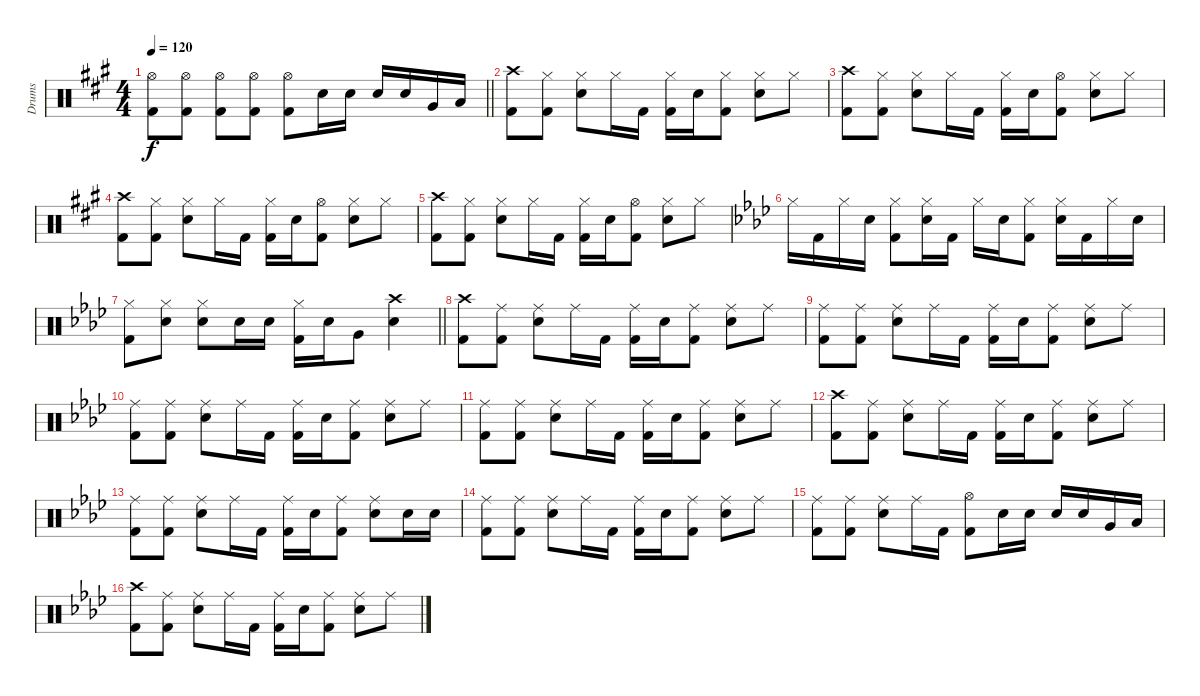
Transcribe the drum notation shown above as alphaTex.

\track ("Drums" "Drums") {instrument percussion}
\staff {score}
\articulation defaults
\ts (4 4)
\tempo 120
\clef neutral
\barLineRight lightlight
\ks a
("Hi-Hat (open)" "Kick (hit) 2").8{dy f} ("Hi-Hat (open)" "Kick (hit) 2").8 ("Hi-Hat (open)" "Kick (hit) 2").8 ("Hi-Hat (open)" "Kick (hit) 2").8 ("Hi-Hat (open)" "Kick (hit) 2").8 "Electric Snare (hit)".16 "Electric Snare (hit)".16 "Electric Snare (hit)".16 "Electric Snare (hit)".16 "Very Low Tom (hit)".16 "Low Floor Tom (hit)".16 |
("Crash high (hit)" "Kick (hit) 2").8 ("Hi-Hat (closed)" "Kick (hit) 2").8 ("Hi-Hat (closed)" "Electric Snare (hit)").8 "Hi-Hat (closed)".16 "Kick (hit) 2".16 ("Hi-Hat (closed)" "Kick (hit) 2").16 "Electric Snare (hit)".16 ("Hi-Hat (closed)" "Kick (hit) 2").8 ("Hi-Hat (closed)" "Electric Snare (hit)").8 "Hi-Hat (closed)".8 |
("Crash high (hit)" "Kick (hit) 2").8 ("Hi-Hat (closed)" "Kick (hit) 2").8 ("Hi-Hat (closed)" "Electric Snare (hit)").8 "Hi-Hat (closed)".16 "Kick (hit) 2".16 ("Hi-Hat (closed)" "Kick (hit) 2").16 "Electric Snare (hit)".16 ("Hi-Hat (open)" "Kick (hit) 2").8 ("Hi-Hat (closed)" "Electric Snare (hit)").8 "Hi-Hat (closed)".8 |
("Crash high (hit)" "Kick (hit) 2").8 ("Hi-Hat (closed)" "Kick (hit) 2").8 ("Hi-Hat (closed)" "Electric Snare (hit)").8 "Hi-Hat (closed)".16 "Kick (hit) 2".16 ("Hi-Hat (closed)" "Kick (hit) 2").16 "Electric Snare (hit)".16 ("Hi-Hat (open)" "Kick (hit) 2").8 ("Hi-Hat (closed)" "Electric Snare (hit)").8 "Hi-Hat (closed)".8 |
("Crash high (hit)" "Kick (hit) 2").8 ("Hi-Hat (closed)" "Kick (hit) 2").8 ("Hi-Hat (closed)" "Electric Snare (hit)").8 "Hi-Hat (closed)".16 "Kick (hit) 2".16 ("Hi-Hat (closed)" "Kick (hit) 2").16 "Electric Snare (hit)".16 ("Hi-Hat (open)" "Kick (hit) 2").8 ("Hi-Hat (closed)" "Electric Snare (hit)").8 "Hi-Hat (closed)".8 |
\ks ab "Hi-Hat (closed)".16 "Kick (hit) 2".16 "Hi-Hat (closed)".16 "Electric Snare (hit)".16
("Hi-Hat (closed)" "Kick (hit) 2").8 ("Hi-Hat (closed)" "Electric Snare (hit)").16 "Kick (hit) 2".16 "Hi-Hat (closed)".16 "Electric Snare (hit)".16 ("Hi-Hat (closed)" "Kick (hit) 2").8 ("Hi-Hat (closed)" "Electric Snare (hit)").16 "Kick (hit) 2".16 "Hi-Hat (closed)".16 "Electric Snare (hit)".16 |
\barLineRight lightlight
("Hi-Hat (closed)" "Kick (hit) 2").8 ("Hi-Hat (closed)" "Electric Snare (hit)").8 ("Hi-Hat (closed)" "Electric Snare (hit)").8 "Electric Snare (hit)".16 "Electric Snare (hit)".16 ("Hi-Hat (closed)" "Kick (hit) 2").16 "Electric Snare (hit)".16 "Very Low Tom (hit)".8 ("Crash high (hit)" "Electric Snare (hit)").4 |
("Crash high (hit)" "Kick (hit) 2").8 ("Ride (middle)" "Kick (hit) 2").8 ("Ride (middle)" "Electric Snare (hit)").8 "Ride (middle)".16 "Kick (hit) 2".16 ("Ride (middle)" "Kick (hit) 2").16 "Electric Snare (hit)".16 ("Ride (middle)" "Kick (hit) 2").8 ("Ride (middle)" "Electric Snare (hit)").8 "Ride (middle)".8 |
("Ride (middle)" "Kick (hit) 2").8 ("Ride (middle)" "Kick (hit) 2").8 ("Ride (middle)" "Electric Snare (hit)").8 "Ride (middle)".16 "Kick (hit) 2".16 ("Ride (middle)" "Kick (hit) 2").16 "Electric Snare (hit)".16 ("Ride (middle)" "Kick (hit) 2").8 ("Ride (middle)" "Electric Snare (hit)").8 "Ride (middle)".8 |
("Ride (middle)" "Kick (hit) 2").8 ("Ride (middle)" "Kick (hit) 2").8 ("Ride (middle)" "Electric Snare (hit)").8 "Ride (middle)".16 "Kick (hit) 2".16 ("Ride (middle)" "Kick (hit) 2").16 "Electric Snare (hit)".16 ("Ride (middle)" "Kick (hit) 2").8 ("Ride (middle)" "Electric Snare (hit)").8 "Ride (middle)".8 |
("Ride (middle)" "Kick (hit) 2").8 ("Ride (middle)" "Kick (hit) 2").8 ("Ride (middle)" "Electric Snare (hit)").8 "Ride (middle)".16 "Kick (hit) 2".16 ("Ride (middle)" "Kick (hit) 2").16 "Electric Snare (hit)".16 ("Ride (middle)" "Kick (hit) 2").8 ("Ride (middle)" "Electric Snare (hit)").8 "Ride (middle)".8 |
("Crash high (hit)" "Kick (hit) 2").8 ("Ride (middle)" "Kick (hit) 2").8 ("Ride (middle)" "Electric Snare (hit)").8 "Ride (middle)".16 "Kick (hit) 2".16 ("Ride (middle)" "Kick (hit) 2").16 "Electric Snare (hit)".16 ("Ride (middle)" "Kick (hit) 2").8 ("Ride (middle)" "Electric Snare (hit)").8 "Ride (middle)".8 |
("Ride (middle)" "Kick (hit) 2").8 ("Ride (middle)" "Kick (hit) 2").8 ("Ride (middle)" "Electric Snare (hit)").8 "Ride (middle)".16 "Kick (hit) 2".16 ("Ride (middle)" "Kick (hit) 2").16 "Electric Snare (hit)".16 ("Ride (middle)" "Kick (hit) 2").8 ("Ride (middle)" "Electric Snare (hit)").8 "Electric Snare (hit)".16 "Electric Snare (hit)".16 |
("Ride (middle)" "Kick (hit) 2").8 ("Ride (middle)" "Kick (hit) 2").8 ("Ride (middle)" "Electric Snare (hit)").8 "Ride (middle)".16 "Kick (hit) 2".16 ("Ride (middle)" "Kick (hit) 2").16 "Electric Snare (hit)".16 ("Ride (middle)" "Kick (hit) 2").8 ("Ride (middle)" "Electric Snare (hit)").8 "Ride (middle)".8 |
("Ride (middle)" "Kick (hit) 2").8 ("Ride (middle)" "Kick (hit) 2").8 ("Ride (middle)" "Electric Snare (hit)").8 "Ride (middle)".16 "Kick (hit) 2".16 ("Hi-Hat (open)" "Kick (hit) 2").8 "Electric Snare (hit)".16 "Electric Snare (hit)".16 "Electric Snare (hit)".16 "Electric Snare (hit)".16 "Very Low Tom (hit)".16 "Low Floor Tom (hit)".16 |
("Crash high (hit)" "Kick (hit) 2").8 ("Ride (middle)" "Kick (hit) 2").8 ("Ride (middle)" "Electric Snare (hit)").8 "Ride (middle)".16 "Kick (hit) 2".16 ("Ride (middle)" "Kick (hit) 2").16 "Electric Snare (hit)".16 ("Ride (middle)" "Kick (hit) 2").8 ("Ride (middle)" "Electric Snare (hit)").8 "Ride (middle)".8
